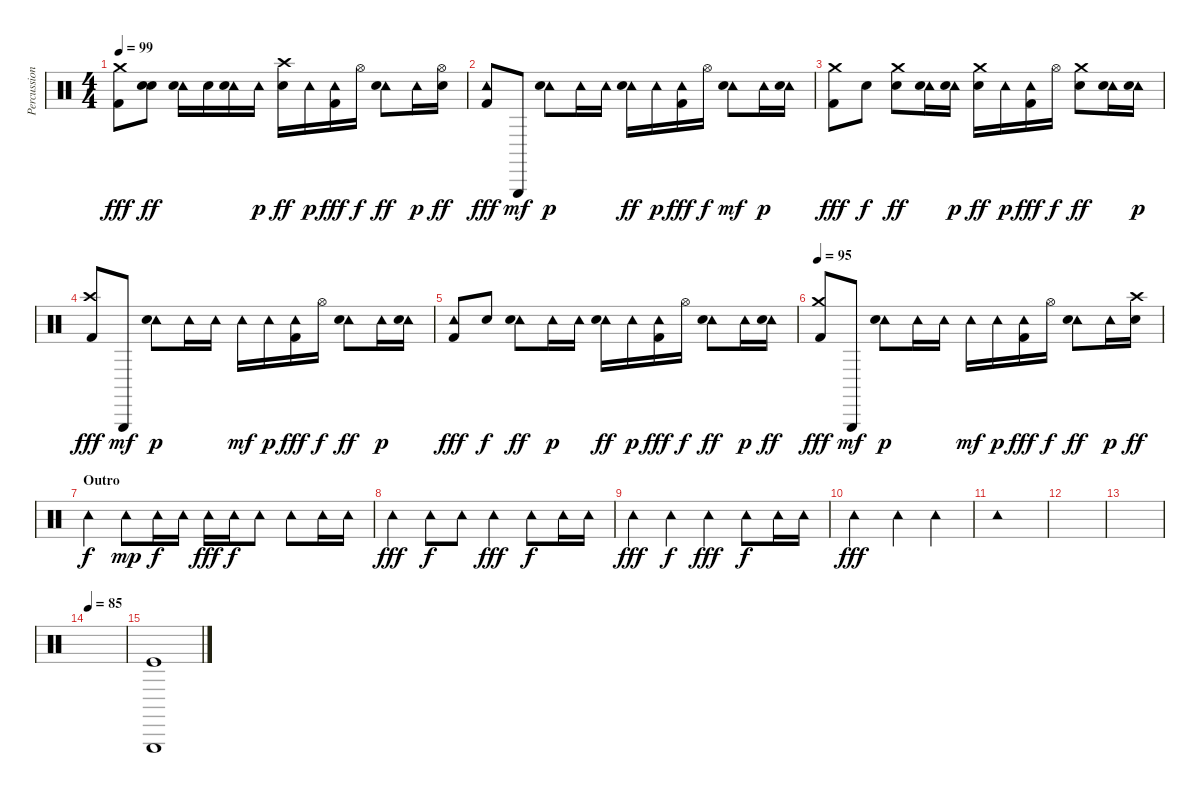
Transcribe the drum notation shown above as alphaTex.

\track ("Percussion" "Percussion") {instrument percussion}
\staff {score}
\articulation defaults
\ts (4 4)
\tempo 99
\clef neutral
\ks c
("Crash medium (hit)" "Kick (hit) 2").8{dy fff} ("Metronome (bell)" "Snare (hit) 2").8{dy ff} ("Tambourine (hit)" "Snare (hit) 2").16 "Electric Snare (hit)".16 ("Tambourine (hit)" "Snare (hit) 2").16 "Tambourine (hit)".16{dy p} ("Crash high (hit)" "Snare (hit) 2").16{dy ff} "Tambourine (hit)".16{dy p} ("Tambourine (hit)" "Kick (hit) 2").16{dy fff} "Hi-Hat (open)".16{dy f} ("Tambourine (hit)" "Snare (hit) 2").8{dy ff} "Tambourine (hit)".16{dy p} ("Hi-Hat (open)" "Snare (hit) 2").16{dy ff} |
("Tambourine (hit)" "Kick (hit) 2").8{dy fff} "Triangle (hit)".8{dy mf} ("Tambourine (hit)" "Snare (hit) 2").8{dy p} "Tambourine (hit)".16 "Tambourine (hit)".16 ("Tambourine (hit)" "Snare (hit) 2").16{dy ff} "Tambourine (hit)".16{dy p} ("Tambourine (hit)" "Kick (hit) 2").16{dy fff} "Hi-Hat (open)".16{dy f} ("Tambourine (hit)" "Snare (hit) 2").8{dy mf} "Tambourine (hit)".16{dy p} ("Tambourine (hit)" "Snare (hit) 2").16 |
("Crash medium (hit)" "Kick (hit) 2").8{dy fff} "Metronome (bell)".8{dy f} ("Crash medium (hit)" "Snare (hit) 2").8{dy ff} ("Tambourine (hit)" "Electric Snare (hit)").16 ("Tambourine (hit)" "Electric Snare (hit)").16{dy p} ("Crash medium (hit)" "Snare (hit) 2").16{dy ff} "Tambourine (hit)".16{dy p} ("Tambourine (hit)" "Kick (hit) 2").16{dy fff} "Hi-Hat (open)".16{dy f} ("Crash medium (hit)" "Snare (hit) 2").8{dy ff} ("Tambourine (hit)" "Electric Snare (hit)").16 ("Tambourine (hit)" "Electric Snare (hit)").16{dy p} |
("Crash high (hit)" "Kick (hit) 2").8{dy fff} "Triangle (hit)".8{dy mf} ("Tambourine (hit)" "Snare (hit) 2").8{dy p} "Tambourine (hit)".16 "Tambourine (hit)".16 "Tambourine (hit)".16{dy mf} "Tambourine (hit)".16{dy p} ("Tambourine (hit)" "Kick (hit) 2").16{dy fff} "Hi-Hat (open)".16{dy f} ("Tambourine (hit)" "Snare (hit) 2").8{dy ff} "Tambourine (hit)".16{dy p} ("Tambourine (hit)" "Electric Snare (hit)").16 |
("Tambourine (hit)" "Kick (hit) 2").8{dy fff} "Metronome (bell)".8{dy f} ("Tambourine (hit)" "Snare (hit) 2").8{dy ff} "Tambourine (hit)".16{dy p} "Tambourine (hit)".16 ("Tambourine (hit)" "Snare (hit) 2").16{dy ff} "Tambourine (hit)".16{dy p} ("Tambourine (hit)" "Kick (hit) 2").16{dy fff} "Hi-Hat (open)".16{dy f} ("Tambourine (hit)" "Snare (hit) 2").8{dy ff} "Tambourine (hit)".16{dy p} ("Tambourine (hit)" "Electric Snare (hit)").16{dy ff} |
\tempo 95
("Crash medium (hit)" "Kick (hit) 2").8{dy fff} "Triangle (hit)".8{dy mf} ("Tambourine (hit)" "Snare (hit) 2").8{dy p} "Tambourine (hit)".16 "Tambourine (hit)".16 "Tambourine (hit)".16{dy mf} "Tambourine (hit)".16{dy p} ("Tambourine (hit)" "Kick (hit) 2").16{dy fff} "Hi-Hat (open)".16{dy f} ("Tambourine (hit)" "Snare (hit) 2").8{dy ff} "Tambourine (hit)".16{dy p} ("Crash high (hit)" "Electric Snare (hit)").16{dy ff} |
\section ("" "Outro")
"Tambourine (hit)".4{dy f} "Tambourine (hit)".8{dy mp} "Tambourine (hit)".16{dy f volume 5} "Tambourine (hit)".16 "Tambourine (hit)".16{dy fff} "Tambourine (hit)".16{dy f} "Tambourine (hit)".8 "Tambourine (hit)".8 "Tambourine (hit)".16 "Tambourine (hit)".16 |
"Tambourine (hit)".4{dy fff} "Tambourine (hit)".8{dy f} "Tambourine (hit)".8 "Tambourine (hit)".4{dy fff} "Tambourine (hit)".8{dy f} "Tambourine (hit)".16 "Tambourine (hit)".16 |
"Tambourine (hit)".4{dy fff} "Tambourine (hit)".4{dy f} "Tambourine (hit)".4{dy fff} "Tambourine (hit)".8{dy f} "Tambourine (hit)".16 "Tambourine (hit)".16 |
"Tambourine (hit)".2{dy fff} "Tambourine (hit)".4 "Tambourine (hit)".4 |
"Tambourine (hit)".1 |
|
|
\tempo 85
|
("Triangle (hit)" "Kick (hit)").1
